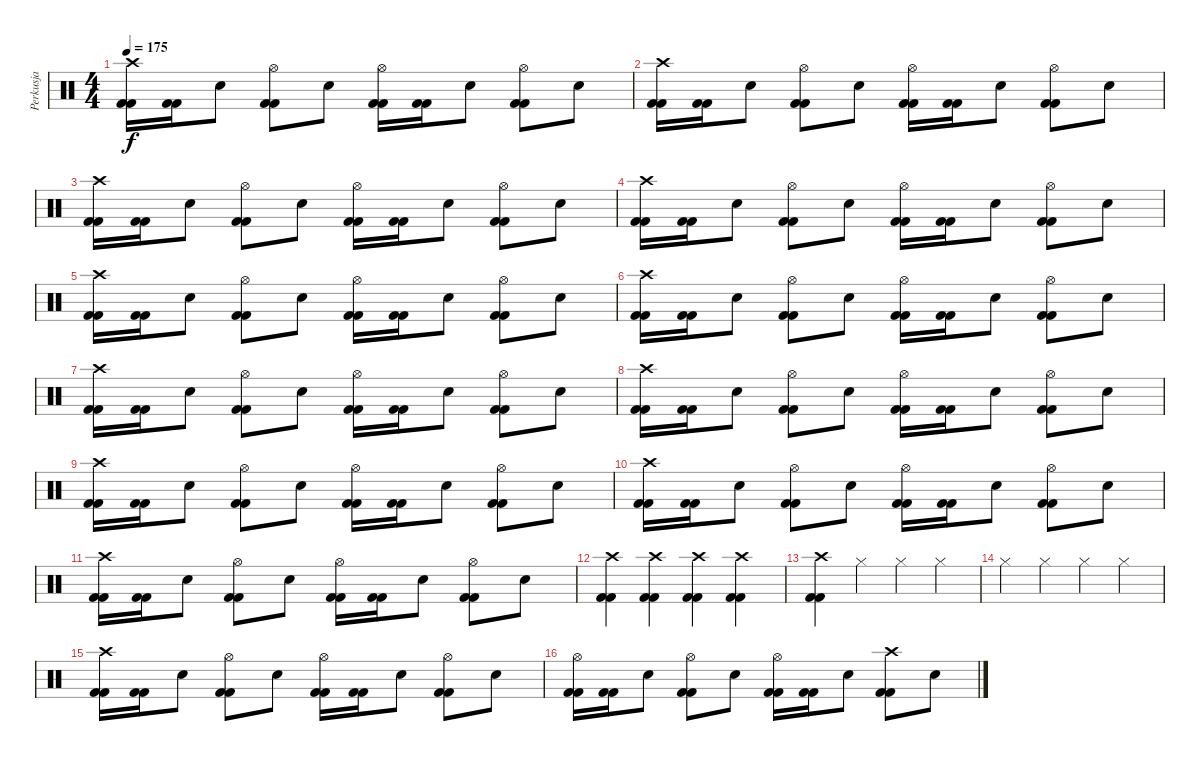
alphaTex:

\track ("Perkusja" "Perkusja") {instrument percussion}
\staff {score}
\articulation defaults
\ts (4 4)
\tempo 175
\clef neutral
\ks c
("Crash high (hit)" "Kick (hit) 2" "Kick (hit) 2").16{dy f} ("Kick (hit) 2" "Kick (hit) 2").16 "Electric Snare (hit)".8 ("Hi-Hat (open)" "Kick (hit) 2" "Kick (hit) 2").8 "Electric Snare (hit)".8 ("Hi-Hat (open)" "Kick (hit) 2" "Kick (hit) 2").16 ("Kick (hit) 2" "Kick (hit) 2").16 "Electric Snare (hit)".8 ("Hi-Hat (open)" "Kick (hit) 2" "Kick (hit) 2").8 "Electric Snare (hit)".8 |
("Crash high (hit)" "Kick (hit) 2" "Kick (hit) 2").16 ("Kick (hit) 2" "Kick (hit) 2").16 "Electric Snare (hit)".8 ("Hi-Hat (open)" "Kick (hit) 2" "Kick (hit) 2").8 "Electric Snare (hit)".8 ("Hi-Hat (open)" "Kick (hit) 2" "Kick (hit) 2").16 ("Kick (hit) 2" "Kick (hit) 2").16 "Electric Snare (hit)".8 ("Hi-Hat (open)" "Kick (hit) 2" "Kick (hit) 2").8 "Electric Snare (hit)".8 |
("Crash high (hit)" "Kick (hit) 2" "Kick (hit) 2").16 ("Kick (hit) 2" "Kick (hit) 2").16 "Electric Snare (hit)".8 ("Hi-Hat (open)" "Kick (hit) 2" "Kick (hit) 2").8 "Electric Snare (hit)".8 ("Hi-Hat (open)" "Kick (hit) 2" "Kick (hit) 2").16 ("Kick (hit) 2" "Kick (hit) 2").16 "Electric Snare (hit)".8 ("Hi-Hat (open)" "Kick (hit) 2" "Kick (hit) 2").8 "Electric Snare (hit)".8 |
("Crash high (hit)" "Kick (hit) 2" "Kick (hit) 2").16 ("Kick (hit) 2" "Kick (hit) 2").16 "Electric Snare (hit)".8 ("Hi-Hat (open)" "Kick (hit) 2" "Kick (hit) 2").8 "Electric Snare (hit)".8 ("Hi-Hat (open)" "Kick (hit) 2" "Kick (hit) 2").16 ("Kick (hit) 2" "Kick (hit) 2").16 "Electric Snare (hit)".8 ("Hi-Hat (open)" "Kick (hit) 2" "Kick (hit) 2").8 "Electric Snare (hit)".8 |
("Crash high (hit)" "Kick (hit) 2" "Kick (hit) 2").16 ("Kick (hit) 2" "Kick (hit) 2").16 "Electric Snare (hit)".8 ("Hi-Hat (open)" "Kick (hit) 2" "Kick (hit) 2").8 "Electric Snare (hit)".8 ("Hi-Hat (open)" "Kick (hit) 2" "Kick (hit) 2").16 ("Kick (hit) 2" "Kick (hit) 2").16 "Electric Snare (hit)".8 ("Hi-Hat (open)" "Kick (hit) 2" "Kick (hit) 2").8 "Electric Snare (hit)".8 |
("Crash high (hit)" "Kick (hit) 2" "Kick (hit) 2").16 ("Kick (hit) 2" "Kick (hit) 2").16 "Electric Snare (hit)".8 ("Hi-Hat (open)" "Kick (hit) 2" "Kick (hit) 2").8 "Electric Snare (hit)".8 ("Hi-Hat (open)" "Kick (hit) 2" "Kick (hit) 2").16 ("Kick (hit) 2" "Kick (hit) 2").16 "Electric Snare (hit)".8 ("Hi-Hat (open)" "Kick (hit) 2" "Kick (hit) 2").8 "Electric Snare (hit)".8 |
("Crash high (hit)" "Kick (hit) 2" "Kick (hit) 2").16 ("Kick (hit) 2" "Kick (hit) 2").16 "Electric Snare (hit)".8 ("Hi-Hat (open)" "Kick (hit) 2" "Kick (hit) 2").8 "Electric Snare (hit)".8 ("Hi-Hat (open)" "Kick (hit) 2" "Kick (hit) 2").16 ("Kick (hit) 2" "Kick (hit) 2").16 "Electric Snare (hit)".8 ("Hi-Hat (open)" "Kick (hit) 2" "Kick (hit) 2").8 "Electric Snare (hit)".8 |
("Crash high (hit)" "Kick (hit) 2" "Kick (hit) 2").16 ("Kick (hit) 2" "Kick (hit) 2").16 "Electric Snare (hit)".8 ("Hi-Hat (open)" "Kick (hit) 2" "Kick (hit) 2").8 "Electric Snare (hit)".8 ("Hi-Hat (open)" "Kick (hit) 2" "Kick (hit) 2").16 ("Kick (hit) 2" "Kick (hit) 2").16 "Electric Snare (hit)".8 ("Hi-Hat (open)" "Kick (hit) 2" "Kick (hit) 2").8 "Electric Snare (hit)".8 |
("Crash high (hit)" "Kick (hit) 2" "Kick (hit) 2").16 ("Kick (hit) 2" "Kick (hit) 2").16 "Electric Snare (hit)".8 ("Hi-Hat (open)" "Kick (hit) 2" "Kick (hit) 2").8 "Electric Snare (hit)".8 ("Hi-Hat (open)" "Kick (hit) 2" "Kick (hit) 2").16 ("Kick (hit) 2" "Kick (hit) 2").16 "Electric Snare (hit)".8 ("Hi-Hat (open)" "Kick (hit) 2" "Kick (hit) 2").8 "Electric Snare (hit)".8 |
("Crash high (hit)" "Kick (hit) 2" "Kick (hit) 2").16 ("Kick (hit) 2" "Kick (hit) 2").16 "Electric Snare (hit)".8 ("Hi-Hat (open)" "Kick (hit) 2" "Kick (hit) 2").8 "Electric Snare (hit)".8 ("Hi-Hat (open)" "Kick (hit) 2" "Kick (hit) 2").16 ("Kick (hit) 2" "Kick (hit) 2").16 "Electric Snare (hit)".8 ("Hi-Hat (open)" "Kick (hit) 2" "Kick (hit) 2").8 "Electric Snare (hit)".8 |
("Crash high (hit)" "Kick (hit) 2" "Kick (hit) 2").16 ("Kick (hit) 2" "Kick (hit) 2").16 "Electric Snare (hit)".8 ("Hi-Hat (open)" "Kick (hit) 2" "Kick (hit) 2").8 "Electric Snare (hit)".8 ("Hi-Hat (open)" "Kick (hit) 2" "Kick (hit) 2").16 ("Kick (hit) 2" "Kick (hit) 2").16 "Electric Snare (hit)".8 ("Hi-Hat (open)" "Kick (hit) 2" "Kick (hit) 2").8 "Electric Snare (hit)".8 |
("Crash high (hit)" "Kick (hit) 2" "Kick (hit) 2").4 ("Crash high (hit)" "Kick (hit) 2" "Kick (hit) 2").4 ("Crash high (hit)" "Kick (hit) 2" "Kick (hit) 2").4 ("Crash high (hit)" "Kick (hit) 2" "Kick (hit) 2").4 |
("Crash high (hit)" "Kick (hit) 2" "Kick (hit) 2").4 "Hi-Hat (closed)".4 "Hi-Hat (closed)".4 "Hi-Hat (closed)".4 |
"Hi-Hat (closed)".4 "Hi-Hat (closed)".4 "Hi-Hat (closed)".4 "Hi-Hat (closed)".4 |
("Crash high (hit)" "Kick (hit) 2" "Kick (hit) 2").16 ("Kick (hit) 2" "Kick (hit) 2").16 "Electric Snare (hit)".8 ("Hi-Hat (open)" "Kick (hit) 2" "Kick (hit) 2").8 "Electric Snare (hit)".8 ("Hi-Hat (open)" "Kick (hit) 2" "Kick (hit) 2").16 ("Kick (hit) 2" "Kick (hit) 2").16 "Electric Snare (hit)".8 ("Hi-Hat (open)" "Kick (hit) 2" "Kick (hit) 2").8 "Electric Snare (hit)".8 |
("Hi-Hat (open)" "Kick (hit) 2" "Kick (hit) 2").16 ("Kick (hit) 2" "Kick (hit) 2").16 "Electric Snare (hit)".8 ("Hi-Hat (open)" "Kick (hit) 2" "Kick (hit) 2").8 "Electric Snare (hit)".8 ("Hi-Hat (open)" "Kick (hit) 2" "Kick (hit) 2").16 ("Kick (hit) 2" "Kick (hit) 2").16 "Electric Snare (hit)".8 ("Crash high (hit)" "Kick (hit) 2" "Kick (hit) 2").8 "Electric Snare (hit)".8
